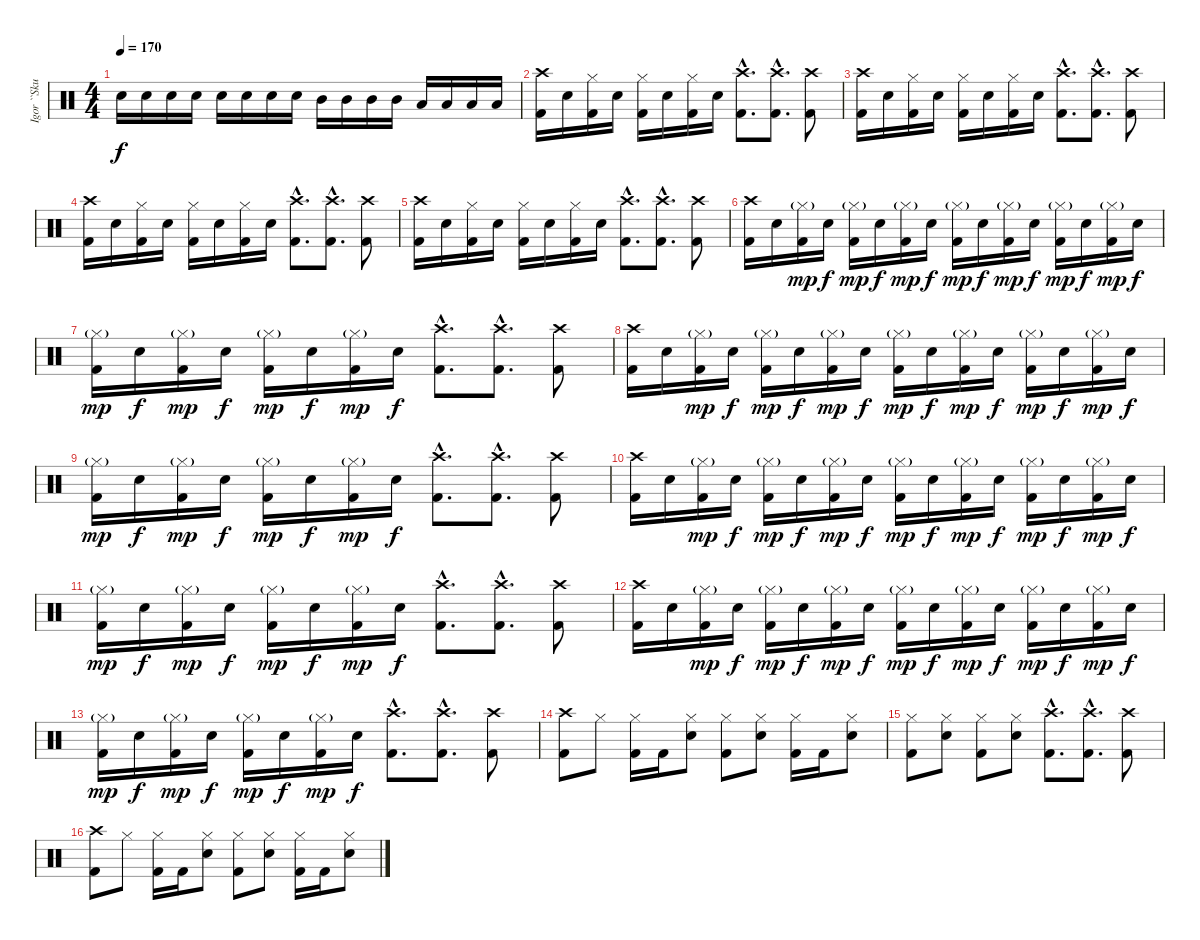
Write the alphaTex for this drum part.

\track ("Igor ``Skullcrusher`` Cavalera" "Igor ``Sku") {instrument percussion}
\staff {score}
\articulation defaults
\ts (4 4)
\tempo 170
\clef neutral
\ks c "Electric Snare (hit)".16{dy f} "Electric Snare (hit)".16 "Electric Snare (hit)".16 "Electric Snare (hit)".16 "Electric Snare (hit)".16 "Electric Snare (hit)".16 "Electric Snare (hit)".16 "Electric Snare (hit)".16 "Mid Tom (hit)".16 "Mid Tom (hit)".16 "Mid Tom (hit)".16 "Mid Tom (hit)".16 "Low Tom (hit)".16 "Low Tom (hit)".16 "Low Tom (hit)".16 "Low Tom (hit)".16
|
("Crash high (hit)" "Kick (hit) 2").16 "Electric Snare (hit)".16 ("Hi-Hat (closed)" "Kick (hit) 2").16 "Electric Snare (hit)".16 ("Hi-Hat (closed)" "Kick (hit) 2").16 "Electric Snare (hit)".16 ("Hi-Hat (closed)" "Kick (hit) 2").16 "Electric Snare (hit)".16 ("Crash high (hit)"{hac} "Kick (hit) 2"{hac}).8{d} ("Crash high (hit)"{hac} "Kick (hit) 2"{hac}).8{d} ("Crash high (hit)" "Kick (hit) 2").8 |
("Crash high (hit)" "Kick (hit) 2").16 "Electric Snare (hit)".16 ("Hi-Hat (closed)" "Kick (hit) 2").16 "Electric Snare (hit)".16 ("Hi-Hat (closed)" "Kick (hit) 2").16 "Electric Snare (hit)".16 ("Hi-Hat (closed)" "Kick (hit) 2").16 "Electric Snare (hit)".16 ("Crash high (hit)"{hac} "Kick (hit) 2"{hac}).8{d} ("Crash high (hit)"{hac} "Kick (hit) 2"{hac}).8{d} ("Crash high (hit)" "Kick (hit) 2").8 |
("Crash high (hit)" "Kick (hit) 2").16 "Electric Snare (hit)".16 ("Hi-Hat (closed)" "Kick (hit) 2").16 "Electric Snare (hit)".16 ("Hi-Hat (closed)" "Kick (hit) 2").16 "Electric Snare (hit)".16 ("Hi-Hat (closed)" "Kick (hit) 2").16 "Electric Snare (hit)".16 ("Crash high (hit)"{hac} "Kick (hit) 2"{hac}).8{d} ("Crash high (hit)"{hac} "Kick (hit) 2"{hac}).8{d} ("Crash high (hit)" "Kick (hit) 2").8 |
("Crash high (hit)" "Kick (hit) 2").16 "Electric Snare (hit)".16 ("Hi-Hat (closed)" "Kick (hit) 2").16 "Electric Snare (hit)".16 ("Hi-Hat (closed)" "Kick (hit) 2").16 "Electric Snare (hit)".16 ("Hi-Hat (closed)" "Kick (hit) 2").16 "Electric Snare (hit)".16 ("Crash high (hit)"{hac} "Kick (hit) 2"{hac}).8{d} ("Crash high (hit)"{hac} "Kick (hit) 2"{hac}).8{d} ("Crash high (hit)" "Kick (hit) 2").8 |
("Crash high (hit)" "Kick (hit) 2").16 "Electric Snare (hit)".16 ("Hi-Hat (closed)"{g} "Kick (hit) 2").16{dy mp} "Electric Snare (hit)".16{dy f} ("Hi-Hat (closed)"{g} "Kick (hit) 2").16{dy mp} "Electric Snare (hit)".16{dy f} ("Hi-Hat (closed)"{g} "Kick (hit) 2").16{dy mp} "Electric Snare (hit)".16{dy f} ("Hi-Hat (closed)"{g} "Kick (hit) 2").16{dy mp} "Electric Snare (hit)".16{dy f} ("Hi-Hat (closed)"{g} "Kick (hit) 2").16{dy mp} "Electric Snare (hit)".16{dy f} ("Hi-Hat (closed)"{g} "Kick (hit) 2").16{dy mp} "Electric Snare (hit)".16{dy f} ("Hi-Hat (closed)"{g} "Kick (hit) 2").16{dy mp} "Electric Snare (hit)".16{dy f} |
("Hi-Hat (closed)"{g} "Kick (hit) 2").16{dy mp} "Electric Snare (hit)".16{dy f} ("Hi-Hat (closed)"{g} "Kick (hit) 2").16{dy mp} "Electric Snare (hit)".16{dy f} ("Hi-Hat (closed)"{g} "Kick (hit) 2").16{dy mp} "Electric Snare (hit)".16{dy f} ("Hi-Hat (closed)"{g} "Kick (hit) 2").16{dy mp} "Electric Snare (hit)".16{dy f} ("Crash high (hit)"{hac} "Kick (hit) 2"{hac}).8{d} ("Crash high (hit)"{hac} "Kick (hit) 2"{hac}).8{d} ("Crash high (hit)" "Kick (hit) 2").8 |
("Crash high (hit)" "Kick (hit) 2").16 "Electric Snare (hit)".16 ("Hi-Hat (closed)"{g} "Kick (hit) 2").16{dy mp} "Electric Snare (hit)".16{dy f} ("Hi-Hat (closed)"{g} "Kick (hit) 2").16{dy mp} "Electric Snare (hit)".16{dy f} ("Hi-Hat (closed)"{g} "Kick (hit) 2").16{dy mp} "Electric Snare (hit)".16{dy f} ("Hi-Hat (closed)"{g} "Kick (hit) 2").16{dy mp} "Electric Snare (hit)".16{dy f} ("Hi-Hat (closed)"{g} "Kick (hit) 2").16{dy mp} "Electric Snare (hit)".16{dy f} ("Hi-Hat (closed)"{g} "Kick (hit) 2").16{dy mp} "Electric Snare (hit)".16{dy f} ("Hi-Hat (closed)"{g} "Kick (hit) 2").16{dy mp} "Electric Snare (hit)".16{dy f} |
("Hi-Hat (closed)"{g} "Kick (hit) 2").16{dy mp} "Electric Snare (hit)".16{dy f} ("Hi-Hat (closed)"{g} "Kick (hit) 2").16{dy mp} "Electric Snare (hit)".16{dy f} ("Hi-Hat (closed)"{g} "Kick (hit) 2").16{dy mp} "Electric Snare (hit)".16{dy f} ("Hi-Hat (closed)"{g} "Kick (hit) 2").16{dy mp} "Electric Snare (hit)".16{dy f} ("Crash high (hit)"{hac} "Kick (hit) 2"{hac}).8{d} ("Crash high (hit)"{hac} "Kick (hit) 2"{hac}).8{d} ("Crash high (hit)" "Kick (hit) 2").8 |
("Crash high (hit)" "Kick (hit) 2").16 "Electric Snare (hit)".16 ("Hi-Hat (closed)"{g} "Kick (hit) 2").16{dy mp} "Electric Snare (hit)".16{dy f} ("Hi-Hat (closed)"{g} "Kick (hit) 2").16{dy mp} "Electric Snare (hit)".16{dy f} ("Hi-Hat (closed)"{g} "Kick (hit) 2").16{dy mp} "Electric Snare (hit)".16{dy f} ("Hi-Hat (closed)"{g} "Kick (hit) 2").16{dy mp} "Electric Snare (hit)".16{dy f} ("Hi-Hat (closed)"{g} "Kick (hit) 2").16{dy mp} "Electric Snare (hit)".16{dy f} ("Hi-Hat (closed)"{g} "Kick (hit) 2").16{dy mp} "Electric Snare (hit)".16{dy f} ("Hi-Hat (closed)"{g} "Kick (hit) 2").16{dy mp} "Electric Snare (hit)".16{dy f} |
("Hi-Hat (closed)"{g} "Kick (hit) 2").16{dy mp} "Electric Snare (hit)".16{dy f} ("Hi-Hat (closed)"{g} "Kick (hit) 2").16{dy mp} "Electric Snare (hit)".16{dy f} ("Hi-Hat (closed)"{g} "Kick (hit) 2").16{dy mp} "Electric Snare (hit)".16{dy f} ("Hi-Hat (closed)"{g} "Kick (hit) 2").16{dy mp} "Electric Snare (hit)".16{dy f} ("Crash high (hit)"{hac} "Kick (hit) 2"{hac}).8{d} ("Crash high (hit)"{hac} "Kick (hit) 2"{hac}).8{d} ("Crash high (hit)" "Kick (hit) 2").8 |
("Crash high (hit)" "Kick (hit) 2").16 "Electric Snare (hit)".16 ("Hi-Hat (closed)"{g} "Kick (hit) 2").16{dy mp} "Electric Snare (hit)".16{dy f} ("Hi-Hat (closed)"{g} "Kick (hit) 2").16{dy mp} "Electric Snare (hit)".16{dy f} ("Hi-Hat (closed)"{g} "Kick (hit) 2").16{dy mp} "Electric Snare (hit)".16{dy f} ("Hi-Hat (closed)"{g} "Kick (hit) 2").16{dy mp} "Electric Snare (hit)".16{dy f} ("Hi-Hat (closed)"{g} "Kick (hit) 2").16{dy mp} "Electric Snare (hit)".16{dy f} ("Hi-Hat (closed)"{g} "Kick (hit) 2").16{dy mp} "Electric Snare (hit)".16{dy f} ("Hi-Hat (closed)"{g} "Kick (hit) 2").16{dy mp} "Electric Snare (hit)".16{dy f} |
("Hi-Hat (closed)"{g} "Kick (hit) 2").16{dy mp} "Electric Snare (hit)".16{dy f} ("Hi-Hat (closed)"{g} "Kick (hit) 2").16{dy mp} "Electric Snare (hit)".16{dy f} ("Hi-Hat (closed)"{g} "Kick (hit) 2").16{dy mp} "Electric Snare (hit)".16{dy f} ("Hi-Hat (closed)"{g} "Kick (hit) 2").16{dy mp} "Electric Snare (hit)".16{dy f} ("Crash high (hit)"{hac} "Kick (hit) 2"{hac}).8{d} ("Crash high (hit)"{hac} "Kick (hit) 2"{hac}).8{d} ("Crash high (hit)" "Kick (hit) 2").8 |
("Crash high (hit)" "Kick (hit) 2").8 "Hi-Hat (closed)".8 ("Hi-Hat (closed)" "Kick (hit) 2").16 "Kick (hit) 2".16 ("Hi-Hat (closed)" "Electric Snare (hit)").8 ("Hi-Hat (closed)" "Kick (hit) 2").8 ("Hi-Hat (closed)" "Electric Snare (hit)").8 ("Hi-Hat (closed)" "Kick (hit) 2").16 "Kick (hit) 2".16 ("Hi-Hat (closed)" "Electric Snare (hit)").8 |
("Hi-Hat (closed)" "Kick (hit) 2").8 ("Hi-Hat (closed)" "Electric Snare (hit)").8 ("Hi-Hat (closed)" "Kick (hit) 2").8 ("Hi-Hat (closed)" "Electric Snare (hit)").8 ("Crash high (hit)"{hac} "Kick (hit) 2"{hac}).8{d} ("Crash high (hit)"{hac} "Kick (hit) 2"{hac}).8{d} ("Crash high (hit)" "Kick (hit) 2").8 |
("Crash high (hit)" "Kick (hit) 2").8 "Hi-Hat (closed)".8 ("Hi-Hat (closed)" "Kick (hit) 2").16 "Kick (hit) 2".16 ("Hi-Hat (closed)" "Electric Snare (hit)").8 ("Hi-Hat (closed)" "Kick (hit) 2").8 ("Hi-Hat (closed)" "Electric Snare (hit)").8 ("Hi-Hat (closed)" "Kick (hit) 2").16 "Kick (hit) 2".16 ("Hi-Hat (closed)" "Electric Snare (hit)").8
